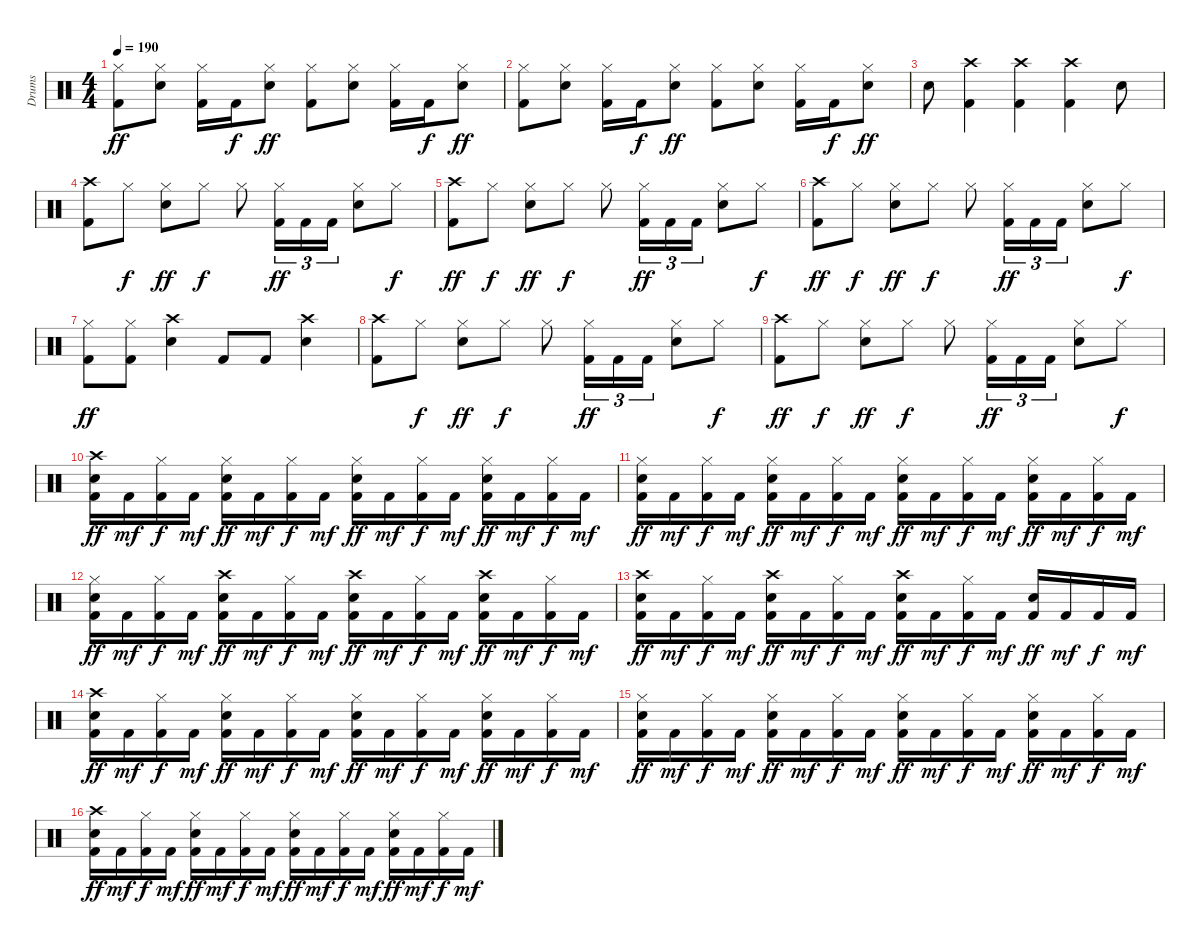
\track ("Drums" "Drums") {instrument percussion}
\staff {score}
\articulation defaults
\ts (4 4)
\tempo 190
\clef neutral
\ks c
("Hi-Hat (closed)" "Kick (hit) 2").8{dy ff} ("Hi-Hat (closed)" "Snare (hit) 2").8 ("Hi-Hat (closed)" "Kick (hit) 2").16 "Kick (hit) 2".16{dy f} ("Hi-Hat (closed)" "Snare (hit) 2").8{dy ff} ("Hi-Hat (closed)" "Kick (hit) 2").8 ("Hi-Hat (closed)" "Snare (hit) 2").8 ("Hi-Hat (closed)" "Kick (hit) 2").16 "Kick (hit) 2".16{dy f} ("Hi-Hat (closed)" "Snare (hit) 2").8{dy ff} |
("Hi-Hat (closed)" "Kick (hit) 2").8 ("Hi-Hat (closed)" "Snare (hit) 2").8 ("Hi-Hat (closed)" "Kick (hit) 2").16 "Kick (hit) 2".16{dy f} ("Hi-Hat (closed)" "Snare (hit) 2").8{dy ff} ("Hi-Hat (closed)" "Kick (hit) 2").8 ("Hi-Hat (closed)" "Snare (hit) 2").8 ("Hi-Hat (closed)" "Kick (hit) 2").16 "Kick (hit) 2".16{dy f} ("Hi-Hat (closed)" "Snare (hit) 2").8{dy ff} |
"Snare (hit) 2".8 ("Crash high (hit)" "Kick (hit) 2").4 ("Crash high (hit)" "Kick (hit) 2").4 ("Crash high (hit)" "Kick (hit) 2").4 "Snare (hit) 2".8 |
("Crash high (hit)" "Kick (hit) 2").8 "Hi-Hat (closed)".8{dy f} ("Hi-Hat (closed)" "Snare (hit) 2").8{dy ff} "Hi-Hat (closed)".8{dy f} "Hi-Hat (closed)".8 ("Hi-Hat (closed)" "Kick (hit) 2").16{tu (3 2) dy ff} "Kick (hit) 2".16{tu (3 2)} "Kick (hit) 2".16{tu (3 2)} ("Hi-Hat (closed)" "Snare (hit) 2").8 "Hi-Hat (closed)".8{dy f} |
("Crash high (hit)" "Kick (hit) 2").8{dy ff} "Hi-Hat (closed)".8{dy f} ("Hi-Hat (closed)" "Snare (hit) 2").8{dy ff} "Hi-Hat (closed)".8{dy f} "Hi-Hat (closed)".8 ("Hi-Hat (closed)" "Kick (hit) 2").16{tu (3 2) dy ff} "Kick (hit) 2".16{tu (3 2)} "Kick (hit) 2".16{tu (3 2)} ("Hi-Hat (closed)" "Snare (hit) 2").8 "Hi-Hat (closed)".8{dy f} |
("Crash high (hit)" "Kick (hit) 2").8{dy ff} "Hi-Hat (closed)".8{dy f} ("Hi-Hat (closed)" "Snare (hit) 2").8{dy ff} "Hi-Hat (closed)".8{dy f} "Hi-Hat (closed)".8 ("Hi-Hat (closed)" "Kick (hit) 2").16{tu (3 2) dy ff} "Kick (hit) 2".16{tu (3 2)} "Kick (hit) 2".16{tu (3 2)} ("Hi-Hat (closed)" "Snare (hit) 2").8 "Hi-Hat (closed)".8{dy f} |
("Hi-Hat (closed)" "Kick (hit) 2").8{dy ff} ("Hi-Hat (closed)" "Kick (hit) 2").8 ("Crash high (hit)" "Snare (hit) 2").4 "Kick (hit) 2".8 "Kick (hit) 2".8 ("Crash high (hit)" "Snare (hit) 2").4 |
("Crash high (hit)" "Kick (hit) 2").8 "Hi-Hat (closed)".8{dy f} ("Hi-Hat (closed)" "Snare (hit) 2").8{dy ff} "Hi-Hat (closed)".8{dy f} "Hi-Hat (closed)".8 ("Hi-Hat (closed)" "Kick (hit) 2").16{tu (3 2) dy ff} "Kick (hit) 2".16{tu (3 2)} "Kick (hit) 2".16{tu (3 2)} ("Hi-Hat (closed)" "Snare (hit) 2").8 "Hi-Hat (closed)".8{dy f} |
("Crash high (hit)" "Kick (hit) 2").8{dy ff} "Hi-Hat (closed)".8{dy f} ("Hi-Hat (closed)" "Snare (hit) 2").8{dy ff} "Hi-Hat (closed)".8{dy f} "Hi-Hat (closed)".8 ("Hi-Hat (closed)" "Kick (hit) 2").16{tu (3 2) dy ff} "Kick (hit) 2".16{tu (3 2)} "Kick (hit) 2".16{tu (3 2)} ("Hi-Hat (closed)" "Snare (hit) 2").8 "Hi-Hat (closed)".8{dy f} |
("Crash high (hit)" "Snare (hit) 2" "Kick (hit) 2").16{dy ff} "Kick (hit) 2".16{dy mf} ("Hi-Hat (closed)" "Kick (hit) 2").16{dy f} "Kick (hit) 2".16{dy mf} ("Hi-Hat (closed)" "Snare (hit) 2" "Kick (hit) 2").16{dy ff} "Kick (hit) 2".16{dy mf} ("Hi-Hat (closed)" "Kick (hit) 2").16{dy f} "Kick (hit) 2".16{dy mf} ("Hi-Hat (closed)" "Snare (hit) 2" "Kick (hit) 2").16{dy ff} "Kick (hit) 2".16{dy mf} ("Hi-Hat (closed)" "Kick (hit) 2").16{dy f} "Kick (hit) 2".16{dy mf} ("Hi-Hat (closed)" "Snare (hit) 2" "Kick (hit) 2").16{dy ff} "Kick (hit) 2".16{dy mf} ("Hi-Hat (closed)" "Kick (hit) 2").16{dy f} "Kick (hit) 2".16{dy mf} |
("Hi-Hat (closed)" "Snare (hit) 2" "Kick (hit) 2").16{dy ff} "Kick (hit) 2".16{dy mf} ("Hi-Hat (closed)" "Kick (hit) 2").16{dy f} "Kick (hit) 2".16{dy mf} ("Hi-Hat (closed)" "Snare (hit) 2" "Kick (hit) 2").16{dy ff} "Kick (hit) 2".16{dy mf} ("Hi-Hat (closed)" "Kick (hit) 2").16{dy f} "Kick (hit) 2".16{dy mf} ("Hi-Hat (closed)" "Snare (hit) 2" "Kick (hit) 2").16{dy ff} "Kick (hit) 2".16{dy mf} ("Hi-Hat (closed)" "Kick (hit) 2").16{dy f} "Kick (hit) 2".16{dy mf} ("Hi-Hat (closed)" "Snare (hit) 2" "Kick (hit) 2").16{dy ff} "Kick (hit) 2".16{dy mf} ("Hi-Hat (closed)" "Kick (hit) 2").16{dy f} "Kick (hit) 2".16{dy mf} |
("Hi-Hat (closed)" "Snare (hit) 2" "Kick (hit) 2").16{dy ff} "Kick (hit) 2".16{dy mf} ("Hi-Hat (closed)" "Kick (hit) 2").16{dy f} "Kick (hit) 2".16{dy mf} ("Crash high (hit)" "Snare (hit) 2" "Kick (hit) 2").16{dy ff} "Kick (hit) 2".16{dy mf} ("Hi-Hat (closed)" "Kick (hit) 2").16{dy f} "Kick (hit) 2".16{dy mf} ("Crash high (hit)" "Snare (hit) 2" "Kick (hit) 2").16{dy ff} "Kick (hit) 2".16{dy mf} ("Hi-Hat (closed)" "Kick (hit) 2").16{dy f} "Kick (hit) 2".16{dy mf} ("Crash high (hit)" "Snare (hit) 2" "Kick (hit) 2").16{dy ff} "Kick (hit) 2".16{dy mf} ("Hi-Hat (closed)" "Kick (hit) 2").16{dy f} "Kick (hit) 2".16{dy mf} |
("Crash high (hit)" "Snare (hit) 2" "Kick (hit) 2").16{dy ff} "Kick (hit) 2".16{dy mf} ("Hi-Hat (closed)" "Kick (hit) 2").16{dy f} "Kick (hit) 2".16{dy mf} ("Crash high (hit)" "Snare (hit) 2" "Kick (hit) 2").16{dy ff} "Kick (hit) 2".16{dy mf} ("Hi-Hat (closed)" "Kick (hit) 2").16{dy f} "Kick (hit) 2".16{dy mf} ("Crash high (hit)" "Snare (hit) 2" "Kick (hit) 2").16{dy ff} "Kick (hit) 2".16{dy mf} ("Hi-Hat (closed)" "Kick (hit) 2").16{dy f} "Kick (hit) 2".16{dy mf} ("Snare (hit) 2" "Kick (hit) 2").16{dy ff} "Kick (hit) 2".16{dy mf} "Kick (hit) 2".16{dy f} "Kick (hit) 2".16{dy mf} |
("Crash high (hit)" "Snare (hit) 2" "Kick (hit) 2").16{dy ff} "Kick (hit) 2".16{dy mf} ("Hi-Hat (closed)" "Kick (hit) 2").16{dy f} "Kick (hit) 2".16{dy mf} ("Hi-Hat (closed)" "Snare (hit) 2" "Kick (hit) 2").16{dy ff} "Kick (hit) 2".16{dy mf} ("Hi-Hat (closed)" "Kick (hit) 2").16{dy f} "Kick (hit) 2".16{dy mf} ("Hi-Hat (closed)" "Snare (hit) 2" "Kick (hit) 2").16{dy ff} "Kick (hit) 2".16{dy mf} ("Hi-Hat (closed)" "Kick (hit) 2").16{dy f} "Kick (hit) 2".16{dy mf} ("Hi-Hat (closed)" "Snare (hit) 2" "Kick (hit) 2").16{dy ff} "Kick (hit) 2".16{dy mf} ("Hi-Hat (closed)" "Kick (hit) 2").16{dy f} "Kick (hit) 2".16{dy mf} |
("Hi-Hat (closed)" "Snare (hit) 2" "Kick (hit) 2").16{dy ff} "Kick (hit) 2".16{dy mf} ("Hi-Hat (closed)" "Kick (hit) 2").16{dy f} "Kick (hit) 2".16{dy mf} ("Hi-Hat (closed)" "Snare (hit) 2" "Kick (hit) 2").16{dy ff} "Kick (hit) 2".16{dy mf} ("Hi-Hat (closed)" "Kick (hit) 2").16{dy f} "Kick (hit) 2".16{dy mf} ("Hi-Hat (closed)" "Snare (hit) 2" "Kick (hit) 2").16{dy ff} "Kick (hit) 2".16{dy mf} ("Hi-Hat (closed)" "Kick (hit) 2").16{dy f} "Kick (hit) 2".16{dy mf} ("Hi-Hat (closed)" "Snare (hit) 2" "Kick (hit) 2").16{dy ff} "Kick (hit) 2".16{dy mf} ("Hi-Hat (closed)" "Kick (hit) 2").16{dy f} "Kick (hit) 2".16{dy mf} |
("Crash high (hit)" "Snare (hit) 2" "Kick (hit) 2").16{dy ff} "Kick (hit) 2".16{dy mf} ("Hi-Hat (closed)" "Kick (hit) 2").16{dy f} "Kick (hit) 2".16{dy mf} ("Hi-Hat (closed)" "Snare (hit) 2" "Kick (hit) 2").16{dy ff} "Kick (hit) 2".16{dy mf} ("Hi-Hat (closed)" "Kick (hit) 2").16{dy f} "Kick (hit) 2".16{dy mf} ("Hi-Hat (closed)" "Snare (hit) 2" "Kick (hit) 2").16{dy ff} "Kick (hit) 2".16{dy mf} ("Hi-Hat (closed)" "Kick (hit) 2").16{dy f} "Kick (hit) 2".16{dy mf} ("Hi-Hat (closed)" "Snare (hit) 2" "Kick (hit) 2").16{dy ff} "Kick (hit) 2".16{dy mf} ("Hi-Hat (closed)" "Kick (hit) 2").16{dy f} "Kick (hit) 2".16{dy mf}
